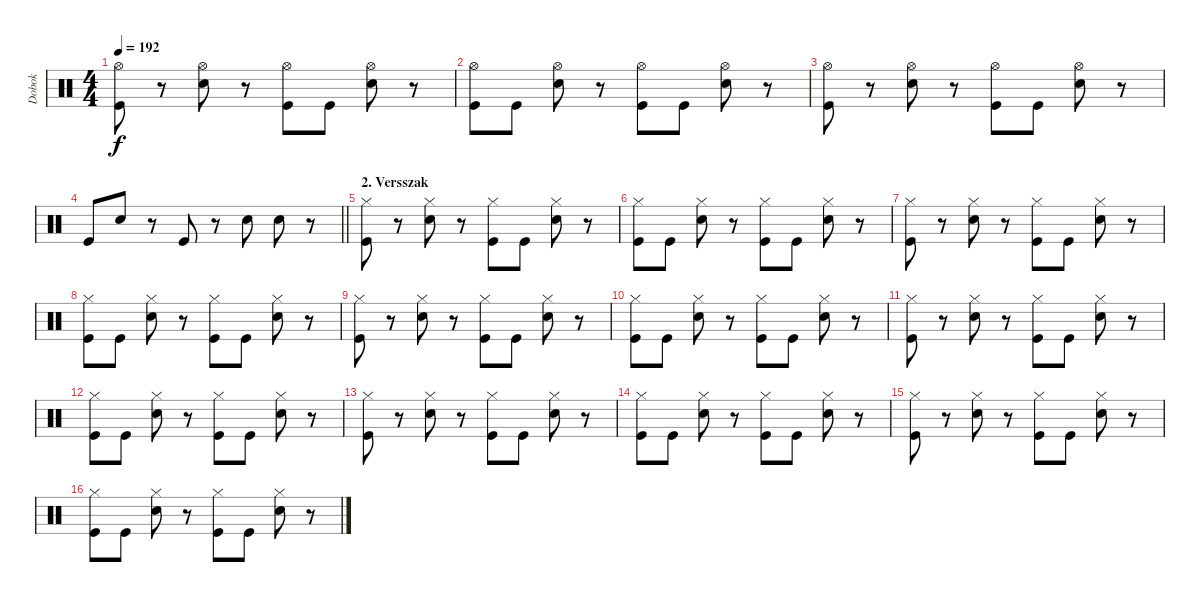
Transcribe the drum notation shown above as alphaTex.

\track ("Dobok" "Dobok") {instrument percussion}
\staff {score}
\articulation defaults
\ts (4 4)
\tempo 192
\clef neutral
\ks c
("Hi-Hat (open)" "Kick (hit)").8{dy f} r.8 ("Hi-Hat (open)" "Electric Snare (hit)").8 r.8 ("Hi-Hat (open)" "Kick (hit)").8 "Kick (hit)".8 ("Hi-Hat (open)" "Electric Snare (hit)").8 r.8 |
("Hi-Hat (open)" "Kick (hit)").8 "Kick (hit)".8 ("Hi-Hat (open)" "Electric Snare (hit)").8 r.8 ("Hi-Hat (open)" "Kick (hit)").8 "Kick (hit)".8 ("Hi-Hat (open)" "Electric Snare (hit)").8 r.8 |
("Hi-Hat (open)" "Kick (hit)").8 r.8 ("Hi-Hat (open)" "Electric Snare (hit)").8 r.8 ("Hi-Hat (open)" "Kick (hit)").8 "Kick (hit)".8 ("Hi-Hat (open)" "Electric Snare (hit)").8 r.8 |
\barLineRight lightlight "Kick (hit)".8 "Electric Snare (hit)".8
r.8 "Kick (hit)".8 r.8 "Electric Snare (hit)".8 "Electric Snare (hit)".8 r.8 |
\section ("" "2. Versszak")
("Hi-Hat (closed)" "Kick (hit)").8 r.8 ("Hi-Hat (closed)" "Electric Snare (hit)").8 r.8 ("Hi-Hat (closed)" "Kick (hit)").8 "Kick (hit)".8 ("Hi-Hat (closed)" "Electric Snare (hit)").8 r.8 |
("Hi-Hat (closed)" "Kick (hit)").8 "Kick (hit)".8 ("Hi-Hat (closed)" "Electric Snare (hit)").8 r.8 ("Hi-Hat (closed)" "Kick (hit)").8 "Kick (hit)".8 ("Hi-Hat (closed)" "Electric Snare (hit)").8 r.8 |
("Hi-Hat (closed)" "Kick (hit)").8 r.8 ("Hi-Hat (closed)" "Electric Snare (hit)").8 r.8 ("Hi-Hat (closed)" "Kick (hit)").8 "Kick (hit)".8 ("Hi-Hat (closed)" "Electric Snare (hit)").8 r.8 |
("Hi-Hat (closed)" "Kick (hit)").8 "Kick (hit)".8 ("Hi-Hat (closed)" "Electric Snare (hit)").8 r.8 ("Hi-Hat (closed)" "Kick (hit)").8 "Kick (hit)".8 ("Hi-Hat (closed)" "Electric Snare (hit)").8 r.8 |
("Hi-Hat (closed)" "Kick (hit)").8 r.8 ("Hi-Hat (closed)" "Electric Snare (hit)").8 r.8 ("Hi-Hat (closed)" "Kick (hit)").8 "Kick (hit)".8 ("Hi-Hat (closed)" "Electric Snare (hit)").8 r.8 |
("Hi-Hat (closed)" "Kick (hit)").8 "Kick (hit)".8 ("Hi-Hat (closed)" "Electric Snare (hit)").8 r.8 ("Hi-Hat (closed)" "Kick (hit)").8 "Kick (hit)".8 ("Hi-Hat (closed)" "Electric Snare (hit)").8 r.8 |
("Hi-Hat (closed)" "Kick (hit)").8 r.8 ("Hi-Hat (closed)" "Electric Snare (hit)").8 r.8 ("Hi-Hat (closed)" "Kick (hit)").8 "Kick (hit)".8 ("Hi-Hat (closed)" "Electric Snare (hit)").8 r.8 |
("Hi-Hat (closed)" "Kick (hit)").8 "Kick (hit)".8 ("Hi-Hat (closed)" "Electric Snare (hit)").8 r.8 ("Hi-Hat (closed)" "Kick (hit)").8 "Kick (hit)".8 ("Hi-Hat (closed)" "Electric Snare (hit)").8 r.8 |
("Hi-Hat (closed)" "Kick (hit)").8 r.8 ("Hi-Hat (closed)" "Electric Snare (hit)").8 r.8 ("Hi-Hat (closed)" "Kick (hit)").8 "Kick (hit)".8 ("Hi-Hat (closed)" "Electric Snare (hit)").8 r.8 |
("Hi-Hat (closed)" "Kick (hit)").8 "Kick (hit)".8 ("Hi-Hat (closed)" "Electric Snare (hit)").8 r.8 ("Hi-Hat (closed)" "Kick (hit)").8 "Kick (hit)".8 ("Hi-Hat (closed)" "Electric Snare (hit)").8 r.8 |
("Hi-Hat (closed)" "Kick (hit)").8 r.8 ("Hi-Hat (closed)" "Electric Snare (hit)").8 r.8 ("Hi-Hat (closed)" "Kick (hit)").8 "Kick (hit)".8 ("Hi-Hat (closed)" "Electric Snare (hit)").8 r.8 |
("Hi-Hat (closed)" "Kick (hit)").8 "Kick (hit)".8 ("Hi-Hat (closed)" "Electric Snare (hit)").8 r.8 ("Hi-Hat (closed)" "Kick (hit)").8 "Kick (hit)".8 ("Hi-Hat (closed)" "Electric Snare (hit)").8 r.8
